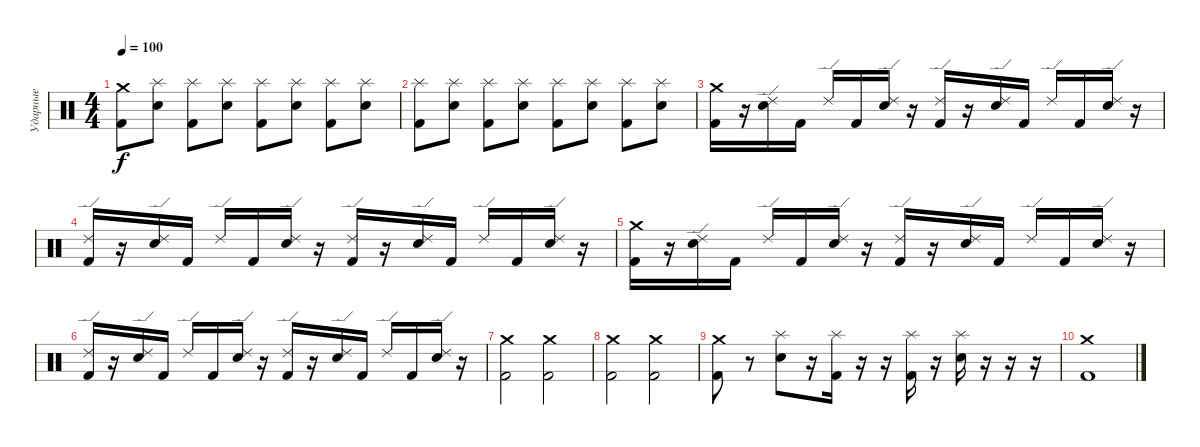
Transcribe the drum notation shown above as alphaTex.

\track ("Ударные" "Ударные") {instrument percussion}
\staff {score}
\articulation defaults
\ts (4 4)
\tempo 100
\clef neutral
\ks c
("Crash medium (hit)" "Kick (hit) 2").8{dy f} ("Splash (hit)" "Electric Snare (hit)").8 ("Splash (hit)" "Kick (hit) 2").8 ("Splash (hit)" "Electric Snare (hit)").8 ("Splash (hit)" "Kick (hit) 2").8 ("Splash (hit)" "Electric Snare (hit)").8 ("Splash (hit)" "Kick (hit) 2").8 ("Splash (hit)" "Electric Snare (hit)").8 |
("Splash (hit)" "Kick (hit) 2").8 ("Splash (hit)" "Electric Snare (hit)").8 ("Splash (hit)" "Kick (hit) 2").8 ("Splash (hit)" "Electric Snare (hit)").8 ("Splash (hit)" "Kick (hit) 2").8 ("Splash (hit)" "Electric Snare (hit)").8 ("Splash (hit)" "Kick (hit) 2").8 ("Splash (hit)" "Electric Snare (hit)").8 |
("Crash medium (hit)" "Kick (hit) 2").16 r.16 ("Ride (edge) 2" "Electric Snare (hit)").16 "Kick (hit) 2".16 "Ride (edge) 2".16 "Kick (hit) 2".16 ("Ride (edge) 2" "Electric Snare (hit)").16 r.16 ("Ride (edge) 2" "Kick (hit) 2").16 r.16 ("Ride (edge) 2" "Electric Snare (hit)").16 "Kick (hit) 2".16 "Ride (edge) 2".16 "Kick (hit) 2".16 ("Ride (edge) 2" "Electric Snare (hit)").16 r.16 |
("Ride (edge) 2" "Kick (hit) 2").16 r.16 ("Ride (edge) 2" "Electric Snare (hit)").16 "Kick (hit) 2".16 "Ride (edge) 2".16 "Kick (hit) 2".16 ("Ride (edge) 2" "Electric Snare (hit)").16 r.16 ("Ride (edge) 2" "Kick (hit) 2").16 r.16 ("Ride (edge) 2" "Electric Snare (hit)").16 "Kick (hit) 2".16 "Ride (edge) 2".16 "Kick (hit) 2".16 ("Ride (edge) 2" "Electric Snare (hit)").16 r.16 |
("Crash medium (hit)" "Kick (hit) 2").16 r.16 ("Ride (edge) 2" "Electric Snare (hit)").16 "Kick (hit) 2".16 "Ride (edge) 2".16 "Kick (hit) 2".16 ("Ride (edge) 2" "Electric Snare (hit)").16 r.16 ("Ride (edge) 2" "Kick (hit) 2").16 r.16 ("Ride (edge) 2" "Electric Snare (hit)").16 "Kick (hit) 2".16 "Ride (edge) 2".16 "Kick (hit) 2".16 ("Ride (edge) 2" "Electric Snare (hit)").16 r.16 |
("Ride (edge) 2" "Kick (hit) 2").16 r.16 ("Ride (edge) 2" "Electric Snare (hit)").16 "Kick (hit) 2".16 "Ride (edge) 2".16 "Kick (hit) 2".16 ("Ride (edge) 2" "Electric Snare (hit)").16 r.16 ("Ride (edge) 2" "Kick (hit) 2").16 r.16 ("Ride (edge) 2" "Electric Snare (hit)").16 "Kick (hit) 2".16 "Ride (edge) 2".16 "Kick (hit) 2".16 ("Ride (edge) 2" "Electric Snare (hit)").16 r.16 |
("Crash medium (hit)" "Kick (hit) 2").2 ("Crash medium (hit)" "Kick (hit) 2").2 |
("Crash medium (hit)" "Kick (hit) 2").2 ("Crash medium (hit)" "Kick (hit) 2").2 |
("Crash medium (hit)" "Kick (hit) 2").8 r.8 ("Splash (hit)" "Electric Snare (hit)").8 r.16 ("Splash (hit)" "Kick (hit) 2").16 r.16 r.16 ("Splash (hit)" "Kick (hit) 2").16 r.16 ("Splash (hit)" "Electric Snare (hit)").16 r.16 r.16 r.16 |
("Crash medium (hit)" "Kick (hit) 2").1
